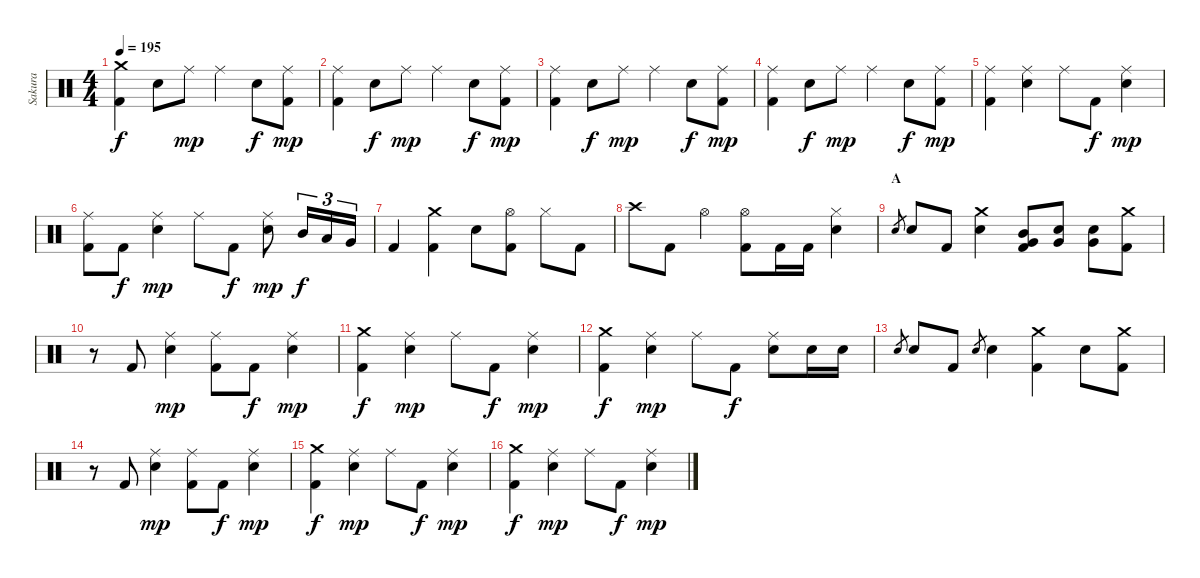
\track ("Sakura" "Sakura") {instrument percussion}
\staff {score}
\articulation defaults
\ts (4 4)
\tempo 195
\clef neutral
\ks c
("Crash medium (hit)" "Kick (hit) 2").4{dy f} "Snare (hit) 2".8 "Ride (middle)".8{dy mp} "Ride (middle)".4 "Snare (hit) 2".8{dy f} ("Ride (middle)" "Kick (hit) 2").8{dy mp} |
("Ride (middle)" "Kick (hit) 2").4 "Snare (hit) 2".8{dy f} "Ride (middle)".8{dy mp} "Ride (middle)".4 "Snare (hit) 2".8{dy f} ("Ride (middle)" "Kick (hit) 2").8{dy mp} |
("Ride (middle)" "Kick (hit) 2").4 "Snare (hit) 2".8{dy f} "Ride (middle)".8{dy mp} "Ride (middle)".4 "Snare (hit) 2".8{dy f} ("Ride (middle)" "Kick (hit) 2").8{dy mp} |
("Ride (middle)" "Kick (hit) 2").4 "Snare (hit) 2".8{dy f} "Ride (middle)".8{dy mp} "Ride (middle)".4 "Snare (hit) 2".8{dy f} ("Ride (middle)" "Kick (hit) 2").8{dy mp} |
("Ride (middle)" "Kick (hit) 2").4 ("Ride (middle)" "Snare (hit) 2").4 "Ride (middle)".8 "Kick (hit) 2".8{dy f} ("Ride (middle)" "Snare (hit) 2").4{dy mp} |
("Ride (middle)" "Kick (hit) 2").8 "Kick (hit) 2".8{dy f} ("Ride (middle)" "Snare (hit) 2").4{dy mp} "Ride (middle)".8 "Kick (hit) 2".8{dy f} ("Ride (middle)" "Snare (hit) 2").8{dy mp} "Mid Tom (hit)".16{tu (3 2) dy f} "Low Tom (hit)".16{tu (3 2)} "Very Low Tom (hit)".16{tu (3 2)} |
"Kick (hit) 2".4 ("Crash medium (hit)" "Kick (hit) 2").4 "Snare (hit) 2".8 ("Hi-Hat (open)" "Kick (hit) 2").8 "Hi-Hat (closed)".8 "Kick (hit) 2".8 |
"Crash high (hit)".8 "Kick (hit) 2".8 "Hi-Hat (open)".4 ("Hi-Hat (open)" "Kick (hit) 2").8 "Kick (hit) 2".16 "Kick (hit) 2".16 ("Hi-Hat (closed)" "Snare (hit) 2").4 |
\section ("" "A")
"Snare (hit) 2".8{gr} "Snare (hit) 2".8 "Kick (hit) 2".8 ("Crash medium (hit)" "Snare (hit) 2").4 ("Mid Tom (hit)" "Very Low Tom (hit)" "Kick (hit) 2").8 ("Snare (hit) 2" "Very Low Tom (hit)").8 ("Snare (hit) 2" "Very Low Tom (hit)").8 ("Crash medium (hit)" "Kick (hit) 2").8 |
r.8 "Kick (hit) 2".8 ("Ride (middle)" "Snare (hit) 2").4{dy mp} ("Ride (middle)" "Kick (hit) 2").8 "Kick (hit) 2".8{dy f} ("Ride (middle)" "Snare (hit) 2").4{dy mp} |
("Crash medium (hit)" "Kick (hit) 2").4{dy f} ("Ride (middle)" "Snare (hit) 2").4{dy mp} "Ride (middle)".8 "Kick (hit) 2".8{dy f} ("Ride (middle)" "Snare (hit) 2").4{dy mp} |
("Crash medium (hit)" "Kick (hit) 2").4{dy f} ("Ride (middle)" "Snare (hit) 2").4{dy mp} "Ride (middle)".8 "Kick (hit) 2".8{dy f} ("Ride (middle)" "Snare (hit) 2").8 "Snare (hit) 2".16 "Snare (hit) 2".16 |
"Snare (hit) 2".8{gr} "Snare (hit) 2".8 "Kick (hit) 2".8 "Snare (hit) 2".8{gr} "Snare (hit) 2".4 ("Crash medium (hit)" "Kick (hit) 2").4 "Snare (hit) 2".8 ("Crash medium (hit)" "Kick (hit) 2").8 |
r.8 "Kick (hit) 2".8 ("Ride (middle)" "Snare (hit) 2").4{dy mp} ("Ride (middle)" "Kick (hit) 2").8 "Kick (hit) 2".8{dy f} ("Ride (middle)" "Snare (hit) 2").4{dy mp} |
("Crash medium (hit)" "Kick (hit) 2").4{dy f} ("Ride (middle)" "Snare (hit) 2").4{dy mp} "Ride (middle)".8 "Kick (hit) 2".8{dy f} ("Ride (middle)" "Snare (hit) 2").4{dy mp} |
("Crash medium (hit)" "Kick (hit) 2").4{dy f} ("Ride (middle)" "Snare (hit) 2").4{dy mp} "Ride (middle)".8 "Kick (hit) 2".8{dy f} ("Ride (middle)" "Snare (hit) 2").4{dy mp}
